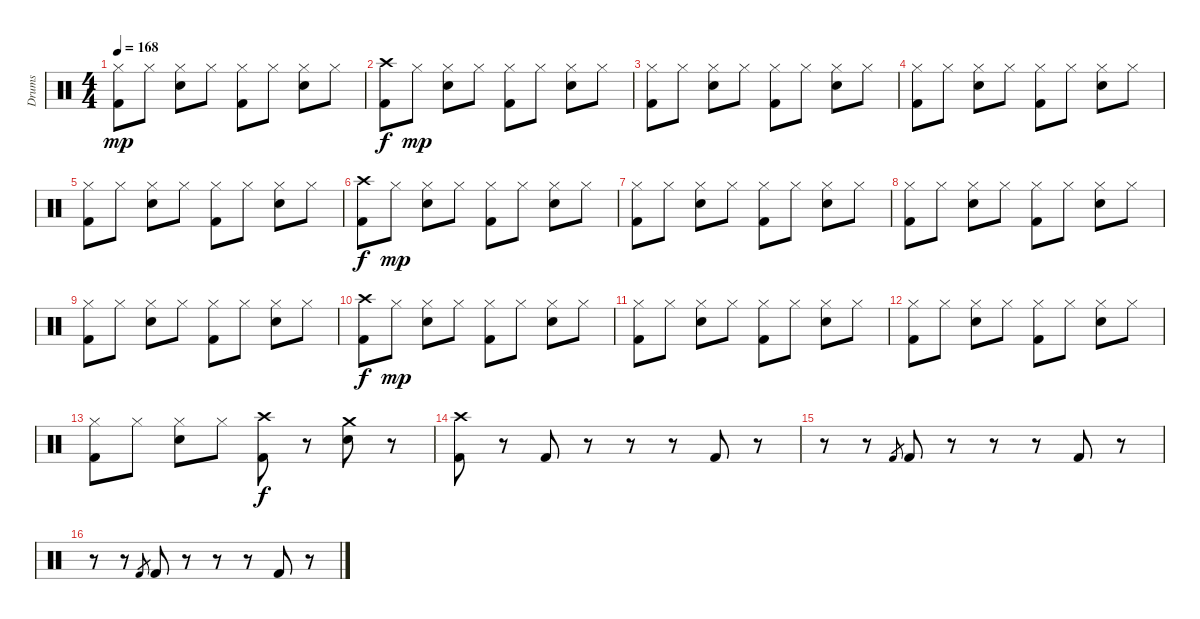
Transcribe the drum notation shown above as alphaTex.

\track ("Drums" "Drums") {instrument percussion}
\staff {score}
\articulation defaults
\ts (4 4)
\tempo 168
\clef neutral
\ks c
("Hi-Hat (closed)" "Kick (hit) 2").8{dy mp} "Hi-Hat (closed)".8 ("Hi-Hat (closed)" "Electric Snare (hit)").8 "Hi-Hat (closed)".8 ("Hi-Hat (closed)" "Kick (hit) 2").8 "Hi-Hat (closed)".8 ("Hi-Hat (closed)" "Electric Snare (hit)").8 "Hi-Hat (closed)".8 |
("Crash high (hit)" "Kick (hit) 2").8{dy f} "Hi-Hat (closed)".8{dy mp} ("Hi-Hat (closed)" "Electric Snare (hit)").8 "Hi-Hat (closed)".8 ("Hi-Hat (closed)" "Kick (hit) 2").8 "Hi-Hat (closed)".8 ("Hi-Hat (closed)" "Electric Snare (hit)").8 "Hi-Hat (closed)".8 |
("Hi-Hat (closed)" "Kick (hit) 2").8 "Hi-Hat (closed)".8 ("Hi-Hat (closed)" "Electric Snare (hit)").8 "Hi-Hat (closed)".8 ("Hi-Hat (closed)" "Kick (hit) 2").8 "Hi-Hat (closed)".8 ("Hi-Hat (closed)" "Electric Snare (hit)").8 "Hi-Hat (closed)".8 |
("Hi-Hat (closed)" "Kick (hit) 2").8 "Hi-Hat (closed)".8 ("Hi-Hat (closed)" "Electric Snare (hit)").8 "Hi-Hat (closed)".8 ("Hi-Hat (closed)" "Kick (hit) 2").8 "Hi-Hat (closed)".8 ("Hi-Hat (closed)" "Electric Snare (hit)").8 "Hi-Hat (closed)".8 |
("Hi-Hat (closed)" "Kick (hit) 2").8 "Hi-Hat (closed)".8 ("Hi-Hat (closed)" "Electric Snare (hit)").8 "Hi-Hat (closed)".8 ("Hi-Hat (closed)" "Kick (hit) 2").8 "Hi-Hat (closed)".8 ("Hi-Hat (closed)" "Electric Snare (hit)").8 "Hi-Hat (closed)".8 |
("Crash high (hit)" "Kick (hit) 2").8{dy f} "Hi-Hat (closed)".8{dy mp} ("Hi-Hat (closed)" "Electric Snare (hit)").8 "Hi-Hat (closed)".8 ("Hi-Hat (closed)" "Kick (hit) 2").8 "Hi-Hat (closed)".8 ("Hi-Hat (closed)" "Electric Snare (hit)").8 "Hi-Hat (closed)".8 |
("Hi-Hat (closed)" "Kick (hit) 2").8 "Hi-Hat (closed)".8 ("Hi-Hat (closed)" "Electric Snare (hit)").8 "Hi-Hat (closed)".8 ("Hi-Hat (closed)" "Kick (hit) 2").8 "Hi-Hat (closed)".8 ("Hi-Hat (closed)" "Electric Snare (hit)").8 "Hi-Hat (closed)".8 |
("Hi-Hat (closed)" "Kick (hit) 2").8 "Hi-Hat (closed)".8 ("Hi-Hat (closed)" "Electric Snare (hit)").8 "Hi-Hat (closed)".8 ("Hi-Hat (closed)" "Kick (hit) 2").8 "Hi-Hat (closed)".8 ("Hi-Hat (closed)" "Electric Snare (hit)").8 "Hi-Hat (closed)".8 |
("Hi-Hat (closed)" "Kick (hit) 2").8 "Hi-Hat (closed)".8 ("Hi-Hat (closed)" "Electric Snare (hit)").8 "Hi-Hat (closed)".8 ("Hi-Hat (closed)" "Kick (hit) 2").8 "Hi-Hat (closed)".8 ("Hi-Hat (closed)" "Electric Snare (hit)").8 "Hi-Hat (closed)".8 |
("Crash high (hit)" "Kick (hit) 2").8{dy f} "Hi-Hat (closed)".8{dy mp} ("Hi-Hat (closed)" "Electric Snare (hit)").8 "Hi-Hat (closed)".8 ("Hi-Hat (closed)" "Kick (hit) 2").8 "Hi-Hat (closed)".8 ("Hi-Hat (closed)" "Electric Snare (hit)").8 "Hi-Hat (closed)".8 |
("Hi-Hat (closed)" "Kick (hit) 2").8 "Hi-Hat (closed)".8 ("Hi-Hat (closed)" "Electric Snare (hit)").8 "Hi-Hat (closed)".8 ("Hi-Hat (closed)" "Kick (hit) 2").8 "Hi-Hat (closed)".8 ("Hi-Hat (closed)" "Electric Snare (hit)").8 "Hi-Hat (closed)".8 |
("Hi-Hat (closed)" "Kick (hit) 2").8 "Hi-Hat (closed)".8 ("Hi-Hat (closed)" "Electric Snare (hit)").8 "Hi-Hat (closed)".8 ("Hi-Hat (closed)" "Kick (hit) 2").8 "Hi-Hat (closed)".8 ("Hi-Hat (closed)" "Electric Snare (hit)").8 "Hi-Hat (closed)".8 |
("Hi-Hat (closed)" "Kick (hit) 2").8 "Hi-Hat (closed)".8 ("Hi-Hat (closed)" "Electric Snare (hit)").8 "Hi-Hat (closed)".8 ("Crash high (hit)" "Kick (hit) 2").8{dy f} r.8 ("Crash medium (hit)" "Electric Snare (hit)").8 r.8 |
("Crash high (hit)" "Kick (hit) 2").8 r.8 "Kick (hit) 2".8 r.8 r.8 r.8 "Kick (hit) 2".8 r.8 |
r.8 r.8 "Kick (hit) 2".8{gr} "Kick (hit) 2".8 r.8 r.8 r.8 "Kick (hit) 2".8 r.8 |
r.8 r.8 "Kick (hit) 2".8{gr} "Kick (hit) 2".8 r.8 r.8 r.8 "Kick (hit) 2".8 r.8
